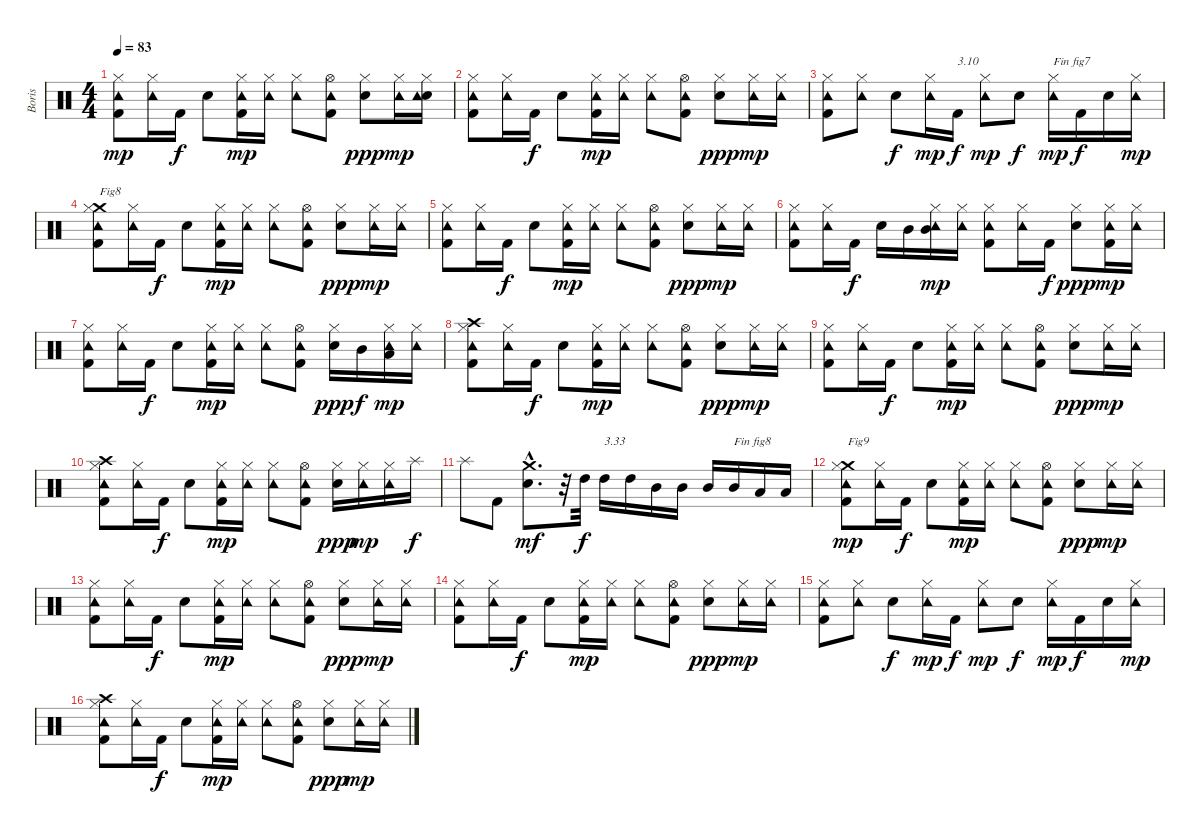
\track ("Boris" "Boris") {instrument percussion}
\staff {score}
\articulation defaults
\ts (4 4)
\tempo 83
\clef neutral
\ks c
("Kick (hit) 2" "Tambourine (hit)" "Hi-Hat (closed)").8{dy mp} ("Tambourine (hit)" "Hi-Hat (closed)").16 "Kick (hit) 2".16{dy f} "Electric Snare (hit)".8 ("Kick (hit) 2" "Tambourine (hit)" "Hi-Hat (closed)").16{dy mp} ("Tambourine (hit)" "Hi-Hat (closed)").16 ("Tambourine (hit)" "Hi-Hat (closed)").8 ("Kick (hit) 2" "Tambourine (hit)" "Hi-Hat (open)").8 ("Electric Snare (hit)" "Hi-Hat (closed)").8{dy ppp} ("Tambourine (hit)" "Hi-Hat (closed)").16{dy mp} ("Electric Snare (hit)" "Tambourine (hit)" "Hi-Hat (closed)").16 |
("Kick (hit) 2" "Tambourine (hit)" "Hi-Hat (closed)").8 ("Tambourine (hit)" "Hi-Hat (closed)").16 "Kick (hit) 2".16{dy f} "Electric Snare (hit)".8 ("Kick (hit) 2" "Tambourine (hit)" "Hi-Hat (closed)").16{dy mp} ("Tambourine (hit)" "Hi-Hat (closed)").16 ("Tambourine (hit)" "Hi-Hat (closed)").8 ("Kick (hit) 2" "Tambourine (hit)" "Hi-Hat (open)").8 ("Electric Snare (hit)" "Hi-Hat (closed)").8{dy ppp} ("Tambourine (hit)" "Hi-Hat (closed)").16{dy mp} ("Tambourine (hit)" "Hi-Hat (closed)").16 |
("Kick (hit) 2" "Tambourine (hit)" "Hi-Hat (closed)").8 ("Tambourine (hit)" "Hi-Hat (closed)").8 "Electric Snare (hit)".8{dy f} ("Tambourine (hit)" "Hi-Hat (closed)").16{dy mp} "Kick (hit) 2".16{txt "3.10" dy f} ("Tambourine (hit)" "Hi-Hat (closed)").8{dy mp} "Electric Snare (hit)".8{dy f} ("Tambourine (hit)" "Hi-Hat (closed)").16{txt "Fin fig7" dy mp} "Kick (hit) 2".16{dy f} "Electric Snare (hit)".16 ("Tambourine (hit)" "Hi-Hat (closed)").16{dy mp} |
("Kick (hit) 2" "Crash medium (hit)" "Tambourine (hit)" "Hi-Hat (closed)").8{txt "Fig8"} ("Tambourine (hit)" "Hi-Hat (closed)").16 "Kick (hit) 2".16{dy f} "Electric Snare (hit)".8 ("Kick (hit) 2" "Tambourine (hit)" "Hi-Hat (closed)").16{dy mp} ("Tambourine (hit)" "Hi-Hat (closed)").16 ("Tambourine (hit)" "Hi-Hat (closed)").8 ("Kick (hit) 2" "Tambourine (hit)" "Hi-Hat (open)").8 ("Electric Snare (hit)" "Hi-Hat (closed)").8{dy ppp} ("Tambourine (hit)" "Hi-Hat (closed)").16{dy mp} ("Tambourine (hit)" "Hi-Hat (closed)").16 |
("Kick (hit) 2" "Tambourine (hit)" "Hi-Hat (closed)").8 ("Tambourine (hit)" "Hi-Hat (closed)").16 "Kick (hit) 2".16{dy f} "Electric Snare (hit)".8 ("Kick (hit) 2" "Tambourine (hit)" "Hi-Hat (closed)").16{dy mp} ("Tambourine (hit)" "Hi-Hat (closed)").16 ("Tambourine (hit)" "Hi-Hat (closed)").8 ("Kick (hit) 2" "Tambourine (hit)" "Hi-Hat (open)").8 ("Electric Snare (hit)" "Hi-Hat (closed)").8{dy ppp} ("Tambourine (hit)" "Hi-Hat (closed)").16{dy mp} ("Tambourine (hit)" "Hi-Hat (closed)").16 |
("Kick (hit) 2" "Tambourine (hit)" "Hi-Hat (closed)").8 ("Tambourine (hit)" "Hi-Hat (closed)").16 "Kick (hit) 2".16{dy f} "Electric Snare (hit)".16 "Mid Tom (hit)".16 ("Mid Tom (hit)" "Tambourine (hit)" "Hi-Hat (closed)").16{dy mp} ("Tambourine (hit)" "Hi-Hat (closed)").16 ("Kick (hit) 2" "Tambourine (hit)" "Hi-Hat (closed)").8 ("Tambourine (hit)" "Hi-Hat (closed)").16 "Kick (hit) 2".16{dy f} ("Electric Snare (hit)" "Hi-Hat (closed)").8{dy ppp} ("Kick (hit) 2" "Tambourine (hit)" "Hi-Hat (closed)").16{dy mp} ("Tambourine (hit)" "Hi-Hat (closed)").16 |
("Kick (hit) 2" "Tambourine (hit)" "Hi-Hat (closed)").8 ("Tambourine (hit)" "Hi-Hat (closed)").16 "Kick (hit) 2".16{dy f} "Electric Snare (hit)".8 ("Kick (hit) 2" "Tambourine (hit)" "Hi-Hat (closed)").16{dy mp} ("Tambourine (hit)" "Hi-Hat (closed)").16 ("Tambourine (hit)" "Hi-Hat (closed)").8 ("Kick (hit) 2" "Tambourine (hit)" "Hi-Hat (open)").8 ("Electric Snare (hit)" "Hi-Hat (closed)").16{dy ppp} "Mid Tom (hit)".16{dy f} ("Low Tom (hit)" "Tambourine (hit)" "Hi-Hat (closed)").16{dy mp} ("Tambourine (hit)" "Hi-Hat (closed)").16 |
("Kick (hit) 2" "Crash high (hit)" "Tambourine (hit)" "Hi-Hat (closed)").8 ("Tambourine (hit)" "Hi-Hat (closed)").16 "Kick (hit) 2".16{dy f} "Electric Snare (hit)".8 ("Kick (hit) 2" "Tambourine (hit)" "Hi-Hat (closed)").16{dy mp} ("Tambourine (hit)" "Hi-Hat (closed)").16 ("Tambourine (hit)" "Hi-Hat (closed)").8 ("Kick (hit) 2" "Tambourine (hit)" "Hi-Hat (open)").8 ("Electric Snare (hit)" "Hi-Hat (closed)").8{dy ppp} ("Tambourine (hit)" "Hi-Hat (closed)").16{dy mp} ("Tambourine (hit)" "Hi-Hat (closed)").16 |
("Kick (hit) 2" "Tambourine (hit)" "Hi-Hat (closed)").8 ("Tambourine (hit)" "Hi-Hat (closed)").16 "Kick (hit) 2".16{dy f} "Electric Snare (hit)".8 ("Kick (hit) 2" "Tambourine (hit)" "Hi-Hat (closed)").16{dy mp} ("Tambourine (hit)" "Hi-Hat (closed)").16 ("Tambourine (hit)" "Hi-Hat (closed)").8 ("Kick (hit) 2" "Tambourine (hit)" "Hi-Hat (open)").8 ("Electric Snare (hit)" "Hi-Hat (closed)").8{dy ppp} ("Tambourine (hit)" "Hi-Hat (closed)").16{dy mp} ("Tambourine (hit)" "Hi-Hat (closed)").16 |
("Kick (hit) 2" "Crash high (hit)" "Tambourine (hit)" "Hi-Hat (closed)").8 ("Tambourine (hit)" "Hi-Hat (closed)").16 "Kick (hit) 2".16{dy f} "Electric Snare (hit)".8 ("Kick (hit) 2" "Tambourine (hit)" "Hi-Hat (closed)").16{dy mp} ("Tambourine (hit)" "Hi-Hat (closed)").16 ("Tambourine (hit)" "Hi-Hat (closed)").8 ("Kick (hit) 2" "Tambourine (hit)" "Hi-Hat (open)").8 ("Electric Snare (hit)" "Hi-Hat (closed)").16{dy ppp} ("Tambourine (hit)" "Hi-Hat (closed)").16{dy mp} ("Tambourine (hit)" "Hi-Hat (closed)").16 "Splash (hit)".16{dy f} |
"Splash (hit)".8 "Kick (hit) 2".8 ("Electric Snare (hit)"{hac} "Crash medium (hit)"{hac}).8{d dy mf} r.32 "High Tom (hit)".32{dy f} "High Tom (hit)".16{txt "3.33"} "High Tom (hit)".16 "Mid Tom (hit)".16 "Mid Tom (hit)".16 "Mid Tom (hit)".16 "Mid Tom (hit)".16{txt "Fin fig8"} "Low Tom (hit)".16 "Low Tom (hit)".16 |
("Kick (hit) 2" "Crash medium (hit)" "Tambourine (hit)" "Hi-Hat (closed)").8{txt "Fig9" dy mp} ("Tambourine (hit)" "Hi-Hat (closed)").16 "Kick (hit) 2".16{dy f} "Electric Snare (hit)".8 ("Kick (hit) 2" "Tambourine (hit)" "Hi-Hat (closed)").16{dy mp} ("Tambourine (hit)" "Hi-Hat (closed)").16 ("Tambourine (hit)" "Hi-Hat (closed)").8 ("Kick (hit) 2" "Tambourine (hit)" "Hi-Hat (open)").8 ("Electric Snare (hit)" "Hi-Hat (closed)").8{dy ppp} ("Tambourine (hit)" "Hi-Hat (closed)").16{dy mp} ("Tambourine (hit)" "Hi-Hat (closed)").16 |
("Kick (hit) 2" "Tambourine (hit)" "Hi-Hat (closed)").8 ("Tambourine (hit)" "Hi-Hat (closed)").16 "Kick (hit) 2".16{dy f} "Electric Snare (hit)".8 ("Kick (hit) 2" "Tambourine (hit)" "Hi-Hat (closed)").16{dy mp} ("Tambourine (hit)" "Hi-Hat (closed)").16 ("Tambourine (hit)" "Hi-Hat (closed)").8 ("Kick (hit) 2" "Tambourine (hit)" "Hi-Hat (open)").8 ("Electric Snare (hit)" "Hi-Hat (closed)").8{dy ppp} ("Tambourine (hit)" "Hi-Hat (closed)").16{dy mp} ("Tambourine (hit)" "Hi-Hat (closed)").16 |
("Kick (hit) 2" "Tambourine (hit)" "Hi-Hat (closed)").8 ("Tambourine (hit)" "Hi-Hat (closed)").16 "Kick (hit) 2".16{dy f} "Electric Snare (hit)".8 ("Kick (hit) 2" "Tambourine (hit)" "Hi-Hat (closed)").16{dy mp} ("Tambourine (hit)" "Hi-Hat (closed)").16 ("Tambourine (hit)" "Hi-Hat (closed)").8 ("Kick (hit) 2" "Tambourine (hit)" "Hi-Hat (open)").8 ("Electric Snare (hit)" "Hi-Hat (closed)").8{dy ppp} ("Tambourine (hit)" "Hi-Hat (closed)").16{dy mp} ("Tambourine (hit)" "Hi-Hat (closed)").16 |
("Kick (hit) 2" "Tambourine (hit)" "Hi-Hat (closed)").8 ("Tambourine (hit)" "Hi-Hat (closed)").8 "Electric Snare (hit)".8{dy f} ("Tambourine (hit)" "Hi-Hat (closed)").16{dy mp} "Kick (hit) 2".16{dy f} ("Tambourine (hit)" "Hi-Hat (closed)").8{dy mp} "Electric Snare (hit)".8{dy f} ("Tambourine (hit)" "Hi-Hat (closed)").16{dy mp} "Kick (hit) 2".16{dy f} "Electric Snare (hit)".16 ("Tambourine (hit)" "Hi-Hat (closed)").16{dy mp} |
("Kick (hit) 2" "Crash high (hit)" "Tambourine (hit)" "Hi-Hat (closed)").8 ("Tambourine (hit)" "Hi-Hat (closed)").16 "Kick (hit) 2".16{dy f} "Electric Snare (hit)".8 ("Kick (hit) 2" "Tambourine (hit)" "Hi-Hat (closed)").16{dy mp} ("Tambourine (hit)" "Hi-Hat (closed)").16 ("Tambourine (hit)" "Hi-Hat (closed)").8 ("Kick (hit) 2" "Tambourine (hit)" "Hi-Hat (open)").8 ("Electric Snare (hit)" "Hi-Hat (closed)").8{dy ppp} ("Tambourine (hit)" "Hi-Hat (closed)").16{dy mp} ("Tambourine (hit)" "Hi-Hat (closed)").16
